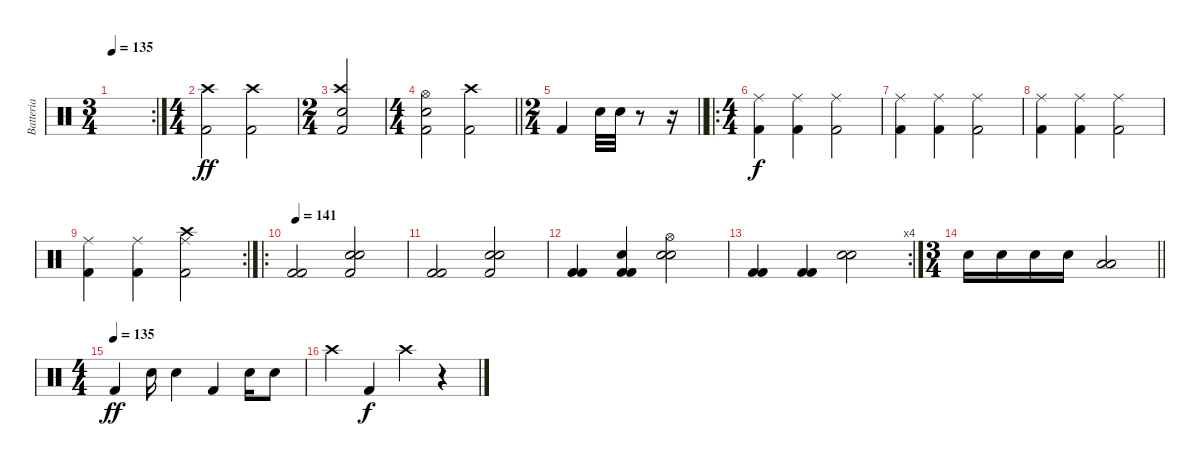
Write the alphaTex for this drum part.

\track ("Batteria" "Batteria") {instrument percussion}
\staff {score}
\articulation defaults
\rc 2
\ts (3 4)
\tempo 135
\clef neutral
\ks c
|
\ts (4 4)
("Kick (hit) 2" "Crash high (hit)").2{dy ff} ("Kick (hit) 2" "Crash high (hit)").2 |
\ts (2 4)
("Snare (hit) 2" "Kick (hit) 2" "Crash high (hit)").2 |
\ts (4 4)
\barLineRight lightlight
("Kick (hit) 2" "Snare (hit) 2" "Hi-Hat (open)").2 ("Crash high (hit)" "Kick (hit) 2").2 |
\ts (2 4)
\barLineRight lightlight "Kick (hit) 2".4 "Snare (hit) 2".32 "Snare (hit) 2".32
r.8 r.16 |
\ro
\ts (4 4)
("Kick (hit) 2" "Ride (middle)").4{dy f} ("Kick (hit) 2" "Ride (middle)").4 ("Kick (hit) 2" "Ride (middle)").2 |
("Kick (hit) 2" "Ride (middle)").4 ("Kick (hit) 2" "Ride (middle)").4 ("Kick (hit) 2" "Ride (middle)").2 |
("Kick (hit) 2" "Ride (middle)").4 ("Kick (hit) 2" "Ride (middle)").4 ("Kick (hit) 2" "Ride (middle)").2 |
\rc 2
("Kick (hit) 2" "Ride (middle)").4 ("Kick (hit) 2" "Ride (middle)").4 ("Kick (hit) 2" "Ride (middle)" "Crash high (hit)").2 |
\ro
\tempo 141
("Kick (hit) 2" "Kick (hit) 2").2 ("Electric Snare (hit)" "Snare (hit) 2" "Kick (hit) 2").2 |
("Kick (hit) 2" "Kick (hit) 2").2 ("Electric Snare (hit)" "Snare (hit) 2" "Kick (hit) 2").2 |
("Kick (hit) 2" "Kick (hit) 2").4 ("Kick (hit) 2" "Kick (hit) 2" "Snare (hit) 2").4 ("Electric Snare (hit)" "Snare (hit) 2" "Hi-Hat (open)").2 |
\rc 4
("Kick (hit) 2" "Kick (hit) 2").4 ("Kick (hit) 2" "Kick (hit) 2").4 ("Snare (hit) 2" "Electric Snare (hit)").2 |
\ts (3 4)
\barLineRight lightlight "Snare (hit) 2".16 "Snare (hit) 2".16 "Snare (hit) 2".16 "Snare (hit) 2".16
("Low Tom (hit)" "Low Tom (hit)").2 |
\ts (4 4)
\tempo (135)
"Kick (hit) 2".4{dy ff} "Snare (hit) 2".16 "Snare (hit) 2".4 "Kick (hit) 2".4 "Snare (hit) 2".16 "Snare (hit) 2".8 |
"Crash high (hit)".4 "Kick (hit) 2".4{dy f} "Crash high (hit)".4 r.4
